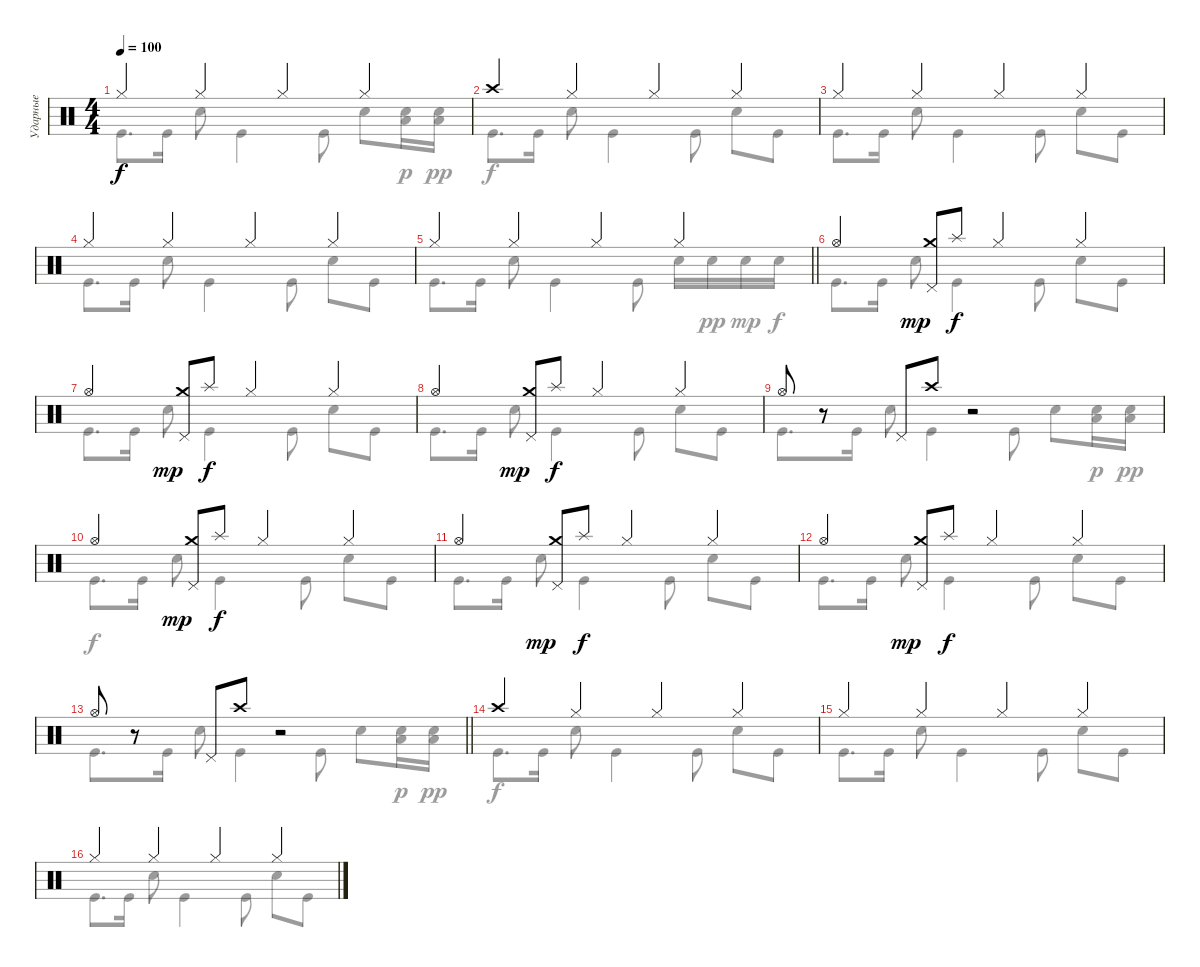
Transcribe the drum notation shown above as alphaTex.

\track ("Ударные" "Ударные") {instrument percussion}
\staff {score}
\articulation defaults
\voice
\ts (4 4)
\tempo 100
\clef neutral
\ks c "Hi-Hat (closed)".4{dy f} "Hi-Hat (closed)".4 "Hi-Hat (closed)".4 "Hi-Hat (closed)".4
|
"Crash high (hit)".4 "Hi-Hat (closed)".4 "Hi-Hat (closed)".4 "Hi-Hat (closed)".4 |
"Hi-Hat (closed)".4 "Hi-Hat (closed)".4 "Hi-Hat (closed)".4 "Hi-Hat (closed)".4 |
"Hi-Hat (closed)".4 "Hi-Hat (closed)".4 "Hi-Hat (closed)".4 "Hi-Hat (closed)".4 |
\barLineRight lightlight "Hi-Hat (closed)".4 "Hi-Hat (closed)".4 "Hi-Hat (closed)".4 "Hi-Hat (closed)".4
|
"Hi-Hat (open)".4 ("Crash medium (hit)" "Pedal Hi-Hat (hit)").8{dy mp} "Splash (hit)".8{dy f} "Hi-Hat (closed)".4 "Hi-Hat (closed)".4 |
"Hi-Hat (open)".4 ("Crash medium (hit)" "Pedal Hi-Hat (hit)").8{dy mp} "Splash (hit)".8{dy f} "Hi-Hat (closed)".4 "Hi-Hat (closed)".4 |
"Hi-Hat (open)".4 ("Crash medium (hit)" "Pedal Hi-Hat (hit)").8{dy mp} "Splash (hit)".8{dy f} "Hi-Hat (closed)".4 "Hi-Hat (closed)".4 |
"Hi-Hat (open)".8 r.8 "Pedal Hi-Hat (hit)".8 "Crash high (hit)".8 r.2 |
"Hi-Hat (open)".4 ("Crash medium (hit)" "Pedal Hi-Hat (hit)").8{dy mp} "Splash (hit)".8{dy f} "Hi-Hat (closed)".4 "Hi-Hat (closed)".4 |
"Hi-Hat (open)".4 ("Crash medium (hit)" "Pedal Hi-Hat (hit)").8{dy mp} "Splash (hit)".8{dy f} "Hi-Hat (closed)".4 "Hi-Hat (closed)".4 |
"Hi-Hat (open)".4 ("Crash medium (hit)" "Pedal Hi-Hat (hit)").8{dy mp} "Splash (hit)".8{dy f} "Hi-Hat (closed)".4 "Hi-Hat (closed)".4 |
\barLineRight lightlight "Hi-Hat (open)".8
r.8 "Pedal Hi-Hat (hit)".8 "Crash high (hit)".8 r.2 |
"Crash high (hit)".4 "Hi-Hat (closed)".4 "Hi-Hat (closed)".4 "Hi-Hat (closed)".4 |
"Hi-Hat (closed)".4 "Hi-Hat (closed)".4 "Hi-Hat (closed)".4 "Hi-Hat (closed)".4 |
"Hi-Hat (closed)".4 "Hi-Hat (closed)".4 "Hi-Hat (closed)".4 "Hi-Hat (closed)".4
\voice
\clef neutral
\ottava regular
\simile none
\ks c "Kick (hit)".8{d dy f} "Kick (hit)".16 "Snare (hit) 2".8 "Kick (hit)".4 "Kick (hit)".8 "Snare (hit) 2".8
("Snare (hit) 2" "Low Tom (hit)").16{dy p} ("Snare (hit) 2" "Low Floor Tom (hit)").16{dy pp} |
"Kick (hit)".8{d dy f} "Kick (hit)".16 "Snare (hit) 2".8 "Kick (hit)".4 "Kick (hit)".8 "Snare (hit) 2".8 "Kick (hit)".8 |
"Kick (hit)".8{d} "Kick (hit)".16 "Snare (hit) 2".8 "Kick (hit)".4 "Kick (hit)".8 "Snare (hit) 2".8 "Kick (hit)".8 |
"Kick (hit)".8{d} "Kick (hit)".16 "Snare (hit) 2".8 "Kick (hit)".4 "Kick (hit)".8 "Snare (hit) 2".8 "Kick (hit)".8 |
\barLineRight lightlight "Kick (hit)".8{d} "Kick (hit)".16 "Snare (hit) 2".8 "Kick (hit)".4 "Kick (hit)".8 "Snare (hit) 2".16 "Snare (hit) 2".16{dy pp} "Snare (hit) 2".16{dy mp} "Snare (hit) 2".16{dy f}
|
"Kick (hit)".8{d} "Kick (hit)".16 "Snare (hit) 2".8 "Kick (hit)".4 "Kick (hit)".8 "Snare (hit) 2".8 "Kick (hit)".8 |
"Kick (hit)".8{d} "Kick (hit)".16 "Snare (hit) 2".8 "Kick (hit)".4 "Kick (hit)".8 "Snare (hit) 2".8 "Kick (hit)".8 |
"Kick (hit)".8{d} "Kick (hit)".16 "Snare (hit) 2".8 "Kick (hit)".4 "Kick (hit)".8 "Snare (hit) 2".8 "Kick (hit)".8 |
"Kick (hit)".8{d} "Kick (hit)".16 "Snare (hit) 2".8 "Kick (hit)".4 "Kick (hit)".8 "Snare (hit) 2".8 ("Snare (hit) 2" "Low Tom (hit)").16{dy p} ("Snare (hit) 2" "Low Floor Tom (hit)").16{dy pp} |
"Kick (hit)".8{d dy f} "Kick (hit)".16 "Snare (hit) 2".8 "Kick (hit)".4 "Kick (hit)".8 "Snare (hit) 2".8 "Kick (hit)".8 |
"Kick (hit)".8{d} "Kick (hit)".16 "Snare (hit) 2".8 "Kick (hit)".4 "Kick (hit)".8 "Snare (hit) 2".8 "Kick (hit)".8 |
"Kick (hit)".8{d} "Kick (hit)".16 "Snare (hit) 2".8 "Kick (hit)".4 "Kick (hit)".8 "Snare (hit) 2".8 "Kick (hit)".8 |
\barLineRight lightlight "Kick (hit)".8{d} "Kick (hit)".16 "Snare (hit) 2".8 "Kick (hit)".4 "Kick (hit)".8 "Snare (hit) 2".8
("Snare (hit) 2" "Low Tom (hit)").16{dy p} ("Snare (hit) 2" "Low Floor Tom (hit)").16{dy pp} |
"Kick (hit)".8{d dy f} "Kick (hit)".16 "Snare (hit) 2".8 "Kick (hit)".4 "Kick (hit)".8 "Snare (hit) 2".8 "Kick (hit)".8 |
"Kick (hit)".8{d} "Kick (hit)".16 "Snare (hit) 2".8 "Kick (hit)".4 "Kick (hit)".8 "Snare (hit) 2".8 "Kick (hit)".8 |
"Kick (hit)".8{d} "Kick (hit)".16 "Snare (hit) 2".8 "Kick (hit)".4 "Kick (hit)".8 "Snare (hit) 2".8 "Kick (hit)".8
